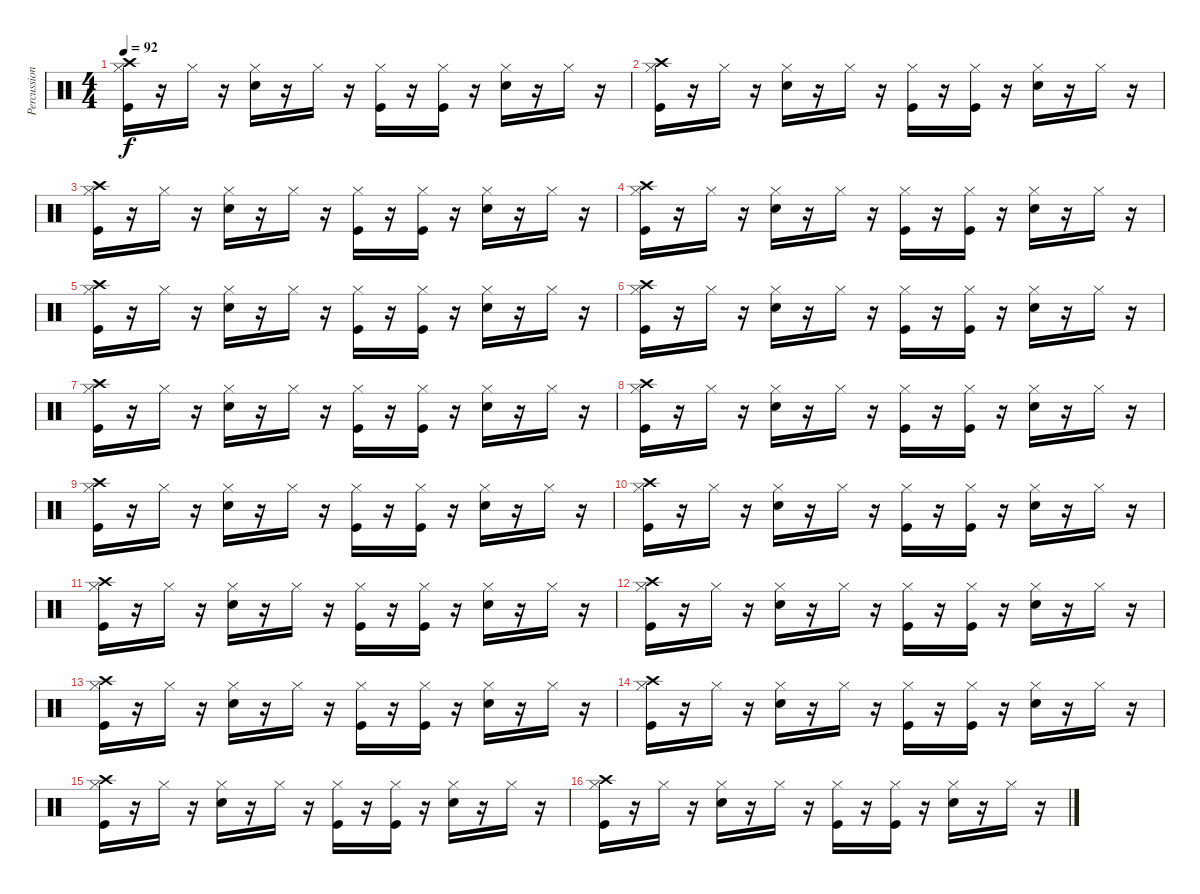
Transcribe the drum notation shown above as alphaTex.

\track ("Percussion" "Percussion") {instrument percussion}
\staff {score}
\articulation defaults
\ts (4 4)
\tempo 92
\clef neutral
\ks c
("Crash high (hit)" "Kick (hit)" "Hi-Hat (closed)").16{dy f} r.16 "Hi-Hat (closed)".16 r.16 ("Hi-Hat (closed)" "Snare (hit) 2").16 r.16 "Hi-Hat (closed)".16 r.16 ("Kick (hit)" "Hi-Hat (closed)").16 r.16 ("Kick (hit)" "Hi-Hat (closed)").16 r.16 ("Snare (hit) 2" "Hi-Hat (closed)").16 r.16 "Hi-Hat (closed)".16 r.16 |
("Crash high (hit)" "Kick (hit)" "Hi-Hat (closed)").16 r.16 "Hi-Hat (closed)".16 r.16 ("Hi-Hat (closed)" "Snare (hit) 2").16 r.16 "Hi-Hat (closed)".16 r.16 ("Kick (hit)" "Hi-Hat (closed)").16 r.16 ("Kick (hit)" "Hi-Hat (closed)").16 r.16 ("Snare (hit) 2" "Hi-Hat (closed)").16 r.16 "Hi-Hat (closed)".16 r.16 |
("Crash high (hit)" "Kick (hit)" "Hi-Hat (closed)").16 r.16 "Hi-Hat (closed)".16 r.16 ("Hi-Hat (closed)" "Snare (hit) 2").16 r.16 "Hi-Hat (closed)".16 r.16 ("Kick (hit)" "Hi-Hat (closed)").16 r.16 ("Kick (hit)" "Hi-Hat (closed)").16 r.16 ("Snare (hit) 2" "Hi-Hat (closed)").16 r.16 "Hi-Hat (closed)".16 r.16 |
("Crash high (hit)" "Kick (hit)" "Hi-Hat (closed)").16 r.16 "Hi-Hat (closed)".16 r.16 ("Hi-Hat (closed)" "Snare (hit) 2").16 r.16 "Hi-Hat (closed)".16 r.16 ("Kick (hit)" "Hi-Hat (closed)").16 r.16 ("Kick (hit)" "Hi-Hat (closed)").16 r.16 ("Snare (hit) 2" "Hi-Hat (closed)").16 r.16 "Hi-Hat (closed)".16 r.16 |
("Crash high (hit)" "Kick (hit)" "Hi-Hat (closed)").16 r.16 "Hi-Hat (closed)".16 r.16 ("Hi-Hat (closed)" "Snare (hit) 2").16 r.16 "Hi-Hat (closed)".16 r.16 ("Kick (hit)" "Hi-Hat (closed)").16 r.16 ("Kick (hit)" "Hi-Hat (closed)").16 r.16 ("Snare (hit) 2" "Hi-Hat (closed)").16 r.16 "Hi-Hat (closed)".16 r.16 |
("Crash high (hit)" "Kick (hit)" "Hi-Hat (closed)").16 r.16 "Hi-Hat (closed)".16 r.16 ("Hi-Hat (closed)" "Snare (hit) 2").16 r.16 "Hi-Hat (closed)".16 r.16 ("Kick (hit)" "Hi-Hat (closed)").16 r.16 ("Kick (hit)" "Hi-Hat (closed)").16 r.16 ("Snare (hit) 2" "Hi-Hat (closed)").16 r.16 "Hi-Hat (closed)".16 r.16 |
("Crash high (hit)" "Kick (hit)" "Hi-Hat (closed)").16 r.16 "Hi-Hat (closed)".16 r.16 ("Hi-Hat (closed)" "Snare (hit) 2").16 r.16 "Hi-Hat (closed)".16 r.16 ("Kick (hit)" "Hi-Hat (closed)").16 r.16 ("Kick (hit)" "Hi-Hat (closed)").16 r.16 ("Snare (hit) 2" "Hi-Hat (closed)").16 r.16 "Hi-Hat (closed)".16 r.16 |
("Crash high (hit)" "Kick (hit)" "Hi-Hat (closed)").16 r.16 "Hi-Hat (closed)".16 r.16 ("Hi-Hat (closed)" "Snare (hit) 2").16 r.16 "Hi-Hat (closed)".16 r.16 ("Kick (hit)" "Hi-Hat (closed)").16 r.16 ("Kick (hit)" "Hi-Hat (closed)").16 r.16 ("Snare (hit) 2" "Hi-Hat (closed)").16 r.16 "Hi-Hat (closed)".16 r.16 |
("Crash high (hit)" "Kick (hit)" "Hi-Hat (closed)").16 r.16 "Hi-Hat (closed)".16 r.16 ("Hi-Hat (closed)" "Snare (hit) 2").16 r.16 "Hi-Hat (closed)".16 r.16 ("Kick (hit)" "Hi-Hat (closed)").16 r.16 ("Kick (hit)" "Hi-Hat (closed)").16 r.16 ("Snare (hit) 2" "Hi-Hat (closed)").16 r.16 "Hi-Hat (closed)".16 r.16 |
("Crash high (hit)" "Kick (hit)" "Hi-Hat (closed)").16 r.16 "Hi-Hat (closed)".16 r.16 ("Hi-Hat (closed)" "Snare (hit) 2").16 r.16 "Hi-Hat (closed)".16 r.16 ("Kick (hit)" "Hi-Hat (closed)").16 r.16 ("Kick (hit)" "Hi-Hat (closed)").16 r.16 ("Snare (hit) 2" "Hi-Hat (closed)").16 r.16 "Hi-Hat (closed)".16 r.16 |
("Crash high (hit)" "Kick (hit)" "Hi-Hat (closed)").16 r.16 "Hi-Hat (closed)".16 r.16 ("Hi-Hat (closed)" "Snare (hit) 2").16 r.16 "Hi-Hat (closed)".16 r.16 ("Kick (hit)" "Hi-Hat (closed)").16 r.16 ("Kick (hit)" "Hi-Hat (closed)").16 r.16 ("Snare (hit) 2" "Hi-Hat (closed)").16 r.16 "Hi-Hat (closed)".16 r.16 |
("Crash high (hit)" "Kick (hit)" "Hi-Hat (closed)").16 r.16 "Hi-Hat (closed)".16 r.16 ("Hi-Hat (closed)" "Snare (hit) 2").16 r.16 "Hi-Hat (closed)".16 r.16 ("Kick (hit)" "Hi-Hat (closed)").16 r.16 ("Kick (hit)" "Hi-Hat (closed)").16 r.16 ("Snare (hit) 2" "Hi-Hat (closed)").16 r.16 "Hi-Hat (closed)".16 r.16 |
("Crash high (hit)" "Kick (hit)" "Hi-Hat (closed)").16 r.16 "Hi-Hat (closed)".16 r.16 ("Hi-Hat (closed)" "Snare (hit) 2").16 r.16 "Hi-Hat (closed)".16 r.16 ("Kick (hit)" "Hi-Hat (closed)").16 r.16 ("Kick (hit)" "Hi-Hat (closed)").16 r.16 ("Snare (hit) 2" "Hi-Hat (closed)").16 r.16 "Hi-Hat (closed)".16 r.16 |
("Crash high (hit)" "Kick (hit)" "Hi-Hat (closed)").16 r.16 "Hi-Hat (closed)".16 r.16 ("Hi-Hat (closed)" "Snare (hit) 2").16 r.16 "Hi-Hat (closed)".16 r.16 ("Kick (hit)" "Hi-Hat (closed)").16 r.16 ("Kick (hit)" "Hi-Hat (closed)").16 r.16 ("Snare (hit) 2" "Hi-Hat (closed)").16 r.16 "Hi-Hat (closed)".16 r.16 |
("Crash high (hit)" "Kick (hit)" "Hi-Hat (closed)").16 r.16 "Hi-Hat (closed)".16 r.16 ("Hi-Hat (closed)" "Snare (hit) 2").16 r.16 "Hi-Hat (closed)".16 r.16 ("Kick (hit)" "Hi-Hat (closed)").16 r.16 ("Kick (hit)" "Hi-Hat (closed)").16 r.16 ("Snare (hit) 2" "Hi-Hat (closed)").16 r.16 "Hi-Hat (closed)".16 r.16 |
("Crash high (hit)" "Kick (hit)" "Hi-Hat (closed)").16 r.16 "Hi-Hat (closed)".16 r.16 ("Hi-Hat (closed)" "Snare (hit) 2").16 r.16 "Hi-Hat (closed)".16 r.16 ("Kick (hit)" "Hi-Hat (closed)").16 r.16 ("Kick (hit)" "Hi-Hat (closed)").16 r.16 ("Snare (hit) 2" "Hi-Hat (closed)").16 r.16 "Hi-Hat (closed)".16 r.16
